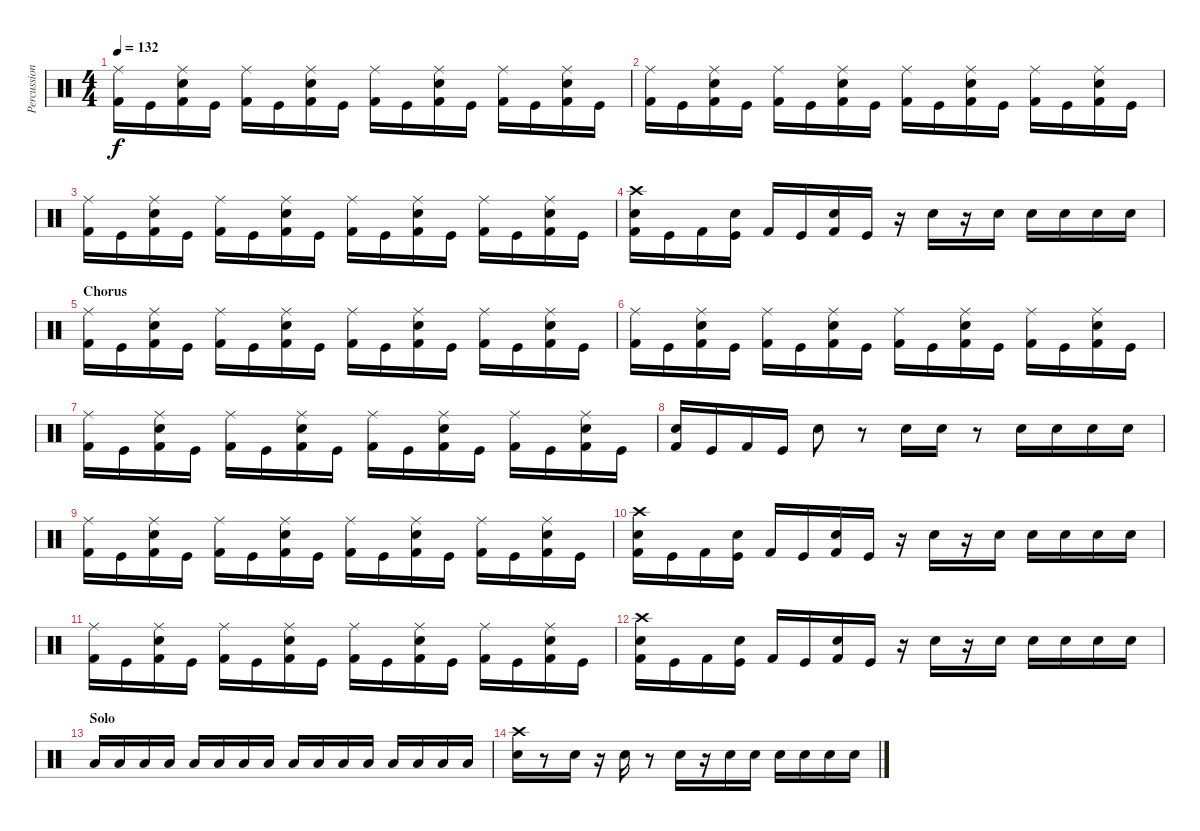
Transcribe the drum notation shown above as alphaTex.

\track ("Percussion" "Percussion") {instrument percussion}
\staff {score}
\articulation defaults
\ts (4 4)
\tempo 132
\clef neutral
\ks c
("Kick (hit) 2" "Ride (middle)").16{dy f} "Kick (hit)".16 ("Kick (hit) 2" "Electric Snare (hit)" "Ride (middle)").16 "Kick (hit)".16 ("Kick (hit) 2" "Ride (middle)").16 "Kick (hit)".16 ("Kick (hit) 2" "Electric Snare (hit)" "Ride (middle)").16 "Kick (hit)".16 ("Kick (hit) 2" "Ride (middle)").16 "Kick (hit)".16 ("Kick (hit) 2" "Electric Snare (hit)" "Ride (middle)").16 "Kick (hit)".16 ("Kick (hit) 2" "Ride (middle)").16 "Kick (hit)".16 ("Kick (hit) 2" "Electric Snare (hit)" "Ride (middle)").16 "Kick (hit)".16 |
("Kick (hit) 2" "Ride (middle)").16 "Kick (hit)".16 ("Kick (hit) 2" "Electric Snare (hit)" "Ride (middle)").16 "Kick (hit)".16 ("Kick (hit) 2" "Ride (middle)").16 "Kick (hit)".16 ("Kick (hit) 2" "Electric Snare (hit)" "Ride (middle)").16 "Kick (hit)".16 ("Kick (hit) 2" "Ride (middle)").16 "Kick (hit)".16 ("Kick (hit) 2" "Electric Snare (hit)" "Ride (middle)").16 "Kick (hit)".16 ("Kick (hit) 2" "Ride (middle)").16 "Kick (hit)".16 ("Kick (hit) 2" "Electric Snare (hit)" "Ride (middle)").16 "Kick (hit)".16 |
("Kick (hit) 2" "Ride (middle)").16 "Kick (hit)".16 ("Kick (hit) 2" "Electric Snare (hit)" "Ride (middle)").16 "Kick (hit)".16 ("Kick (hit) 2" "Ride (middle)").16 "Kick (hit)".16 ("Kick (hit) 2" "Electric Snare (hit)" "Ride (middle)").16 "Kick (hit)".16 ("Kick (hit) 2" "Ride (middle)").16 "Kick (hit)".16 ("Kick (hit) 2" "Electric Snare (hit)" "Ride (middle)").16 "Kick (hit)".16 ("Kick (hit) 2" "Ride (middle)").16 "Kick (hit)".16 ("Kick (hit) 2" "Electric Snare (hit)" "Ride (middle)").16 "Kick (hit)".16 |
("Kick (hit) 2" "Electric Snare (hit)" "Crash high (hit)").16 "Kick (hit)".16 "Kick (hit) 2".16 ("Kick (hit)" "Electric Snare (hit)").16 "Kick (hit) 2".16 "Kick (hit)".16 ("Kick (hit) 2" "Electric Snare (hit)").16 "Kick (hit)".16 r.16 "Electric Snare (hit)".16 r.16 "Electric Snare (hit)".16 "Electric Snare (hit)".16 "Electric Snare (hit)".16 "Electric Snare (hit)".16 "Electric Snare (hit)".16 |
\section ("" "Chorus")
("Kick (hit) 2" "Ride (middle)").16 "Kick (hit)".16 ("Kick (hit) 2" "Electric Snare (hit)" "Ride (middle)").16 "Kick (hit)".16 ("Kick (hit) 2" "Ride (middle)").16 "Kick (hit)".16 ("Kick (hit) 2" "Electric Snare (hit)" "Ride (middle)").16 "Kick (hit)".16 ("Kick (hit) 2" "Ride (middle)").16 "Kick (hit)".16 ("Kick (hit) 2" "Electric Snare (hit)" "Ride (middle)").16 "Kick (hit)".16 ("Kick (hit) 2" "Ride (middle)").16 "Kick (hit)".16 ("Kick (hit) 2" "Electric Snare (hit)" "Ride (middle)").16 "Kick (hit)".16 |
("Kick (hit) 2" "Ride (middle)").16 "Kick (hit)".16 ("Kick (hit) 2" "Electric Snare (hit)" "Ride (middle)").16 "Kick (hit)".16 ("Kick (hit) 2" "Ride (middle)").16 "Kick (hit)".16 ("Kick (hit) 2" "Electric Snare (hit)" "Ride (middle)").16 "Kick (hit)".16 ("Kick (hit) 2" "Ride (middle)").16 "Kick (hit)".16 ("Kick (hit) 2" "Electric Snare (hit)" "Ride (middle)").16 "Kick (hit)".16 ("Kick (hit) 2" "Ride (middle)").16 "Kick (hit)".16 ("Kick (hit) 2" "Electric Snare (hit)" "Ride (middle)").16 "Kick (hit)".16 |
("Kick (hit) 2" "Ride (middle)").16 "Kick (hit)".16 ("Kick (hit) 2" "Electric Snare (hit)" "Ride (middle)").16 "Kick (hit)".16 ("Kick (hit) 2" "Ride (middle)").16 "Kick (hit)".16 ("Kick (hit) 2" "Electric Snare (hit)" "Ride (middle)").16 "Kick (hit)".16 ("Kick (hit) 2" "Ride (middle)").16 "Kick (hit)".16 ("Kick (hit) 2" "Electric Snare (hit)" "Ride (middle)").16 "Kick (hit)".16 ("Kick (hit) 2" "Ride (middle)").16 "Kick (hit)".16 ("Kick (hit) 2" "Electric Snare (hit)" "Ride (middle)").16 "Kick (hit)".16 |
("Kick (hit) 2" "Electric Snare (hit)").16 "Kick (hit)".16 "Kick (hit) 2".16 "Kick (hit)".16 "Electric Snare (hit)".8 r.8 "Electric Snare (hit)".16 "Electric Snare (hit)".16 r.8 "Electric Snare (hit)".16 "Electric Snare (hit)".16 "Electric Snare (hit)".16 "Electric Snare (hit)".16 |
("Kick (hit) 2" "Ride (middle)").16 "Kick (hit)".16 ("Kick (hit) 2" "Electric Snare (hit)" "Ride (middle)").16 "Kick (hit)".16 ("Kick (hit) 2" "Ride (middle)").16 "Kick (hit)".16 ("Kick (hit) 2" "Electric Snare (hit)" "Ride (middle)").16 "Kick (hit)".16 ("Kick (hit) 2" "Ride (middle)").16 "Kick (hit)".16 ("Kick (hit) 2" "Electric Snare (hit)" "Ride (middle)").16 "Kick (hit)".16 ("Kick (hit) 2" "Ride (middle)").16 "Kick (hit)".16 ("Kick (hit) 2" "Electric Snare (hit)" "Ride (middle)").16 "Kick (hit)".16 |
("Kick (hit) 2" "Electric Snare (hit)" "Crash high (hit)").16 "Kick (hit)".16 "Kick (hit) 2".16 ("Kick (hit)" "Electric Snare (hit)").16 "Kick (hit) 2".16 "Kick (hit)".16 ("Kick (hit) 2" "Electric Snare (hit)").16 "Kick (hit)".16 r.16 "Electric Snare (hit)".16 r.16 "Electric Snare (hit)".16 "Electric Snare (hit)".16 "Electric Snare (hit)".16 "Electric Snare (hit)".16 "Electric Snare (hit)".16 |
("Kick (hit) 2" "Ride (middle)").16 "Kick (hit)".16 ("Kick (hit) 2" "Electric Snare (hit)" "Ride (middle)").16 "Kick (hit)".16 ("Kick (hit) 2" "Ride (middle)").16 "Kick (hit)".16 ("Kick (hit) 2" "Electric Snare (hit)" "Ride (middle)").16 "Kick (hit)".16 ("Kick (hit) 2" "Ride (middle)").16 "Kick (hit)".16 ("Kick (hit) 2" "Electric Snare (hit)" "Ride (middle)").16 "Kick (hit)".16 ("Kick (hit) 2" "Ride (middle)").16 "Kick (hit)".16 ("Kick (hit) 2" "Electric Snare (hit)" "Ride (middle)").16 "Kick (hit)".16 |
("Kick (hit) 2" "Electric Snare (hit)" "Crash high (hit)").16 "Kick (hit)".16 "Kick (hit) 2".16 ("Kick (hit)" "Electric Snare (hit)").16 "Kick (hit) 2".16 "Kick (hit)".16 ("Kick (hit) 2" "Electric Snare (hit)").16 "Kick (hit)".16 r.16 "Electric Snare (hit)".16 r.16 "Electric Snare (hit)".16 "Electric Snare (hit)".16 "Electric Snare (hit)".16 "Electric Snare (hit)".16 "Electric Snare (hit)".16 |
\section ("" "Solo")
"Low Floor Tom (hit)".16 "Low Floor Tom (hit)".16 "Low Floor Tom (hit)".16 "Low Floor Tom (hit)".16 "Low Floor Tom (hit)".16 "Low Floor Tom (hit)".16 "Low Floor Tom (hit)".16 "Low Floor Tom (hit)".16 "Low Floor Tom (hit)".16 "Low Floor Tom (hit)".16 "Low Floor Tom (hit)".16 "Low Floor Tom (hit)".16 "Low Floor Tom (hit)".16 "Low Floor Tom (hit)".16 "Low Floor Tom (hit)".16 "Low Floor Tom (hit)".16 |
("Electric Snare (hit)" "Crash high (hit)").16 r.8 "Electric Snare (hit)".16 r.16 "Electric Snare (hit)".16 r.8 "Electric Snare (hit)".16 r.16 "Electric Snare (hit)".16 "Electric Snare (hit)".16 "Electric Snare (hit)".16 "Electric Snare (hit)".16 "Electric Snare (hit)".16 "Electric Snare (hit)".16
